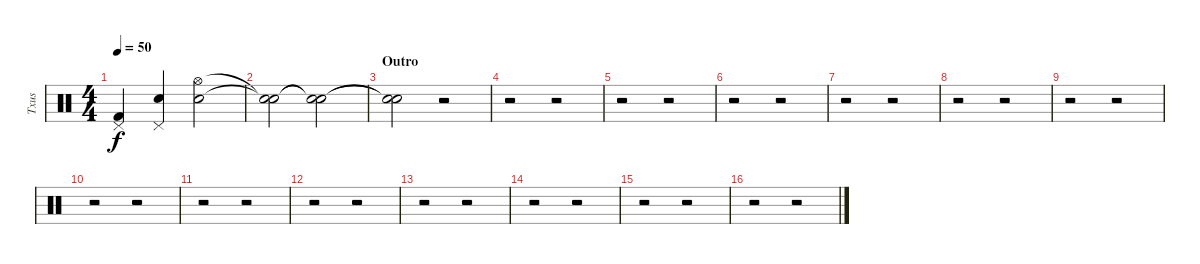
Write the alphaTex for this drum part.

\track ("Txus" "Txus") {instrument percussion}
\staff {score}
\articulation defaults
\ts (4 4)
\tempo 50
\clef neutral
\ks c
("Pedal Hi-Hat (hit)" "Kick (hit) 2").4{dy f} ("Pedal Hi-Hat (hit)" "Snare (hit) 2").4 ("Hi-Hat (open)" "Snare (hit) 2").2 |
("Snare (hit)"{t} "Snare (hit)"{t}).2 ("Snare (hit)"{t} "Snare (hit)"{t}).2 |
\section ("" "Outro")
("Snare (hit)"{t} "Snare (hit)"{t}).2 r.2 |
r.2 r.2 |
r.2 r.2 |
r.2 r.2 |
r.2 r.2 |
r.2 r.2 |
r.2 r.2 |
r.2 r.2 |
r.2 r.2 |
r.2 r.2 |
r.2 r.2 |
r.2 r.2 |
r.2 r.2 |
r.2 r.2
